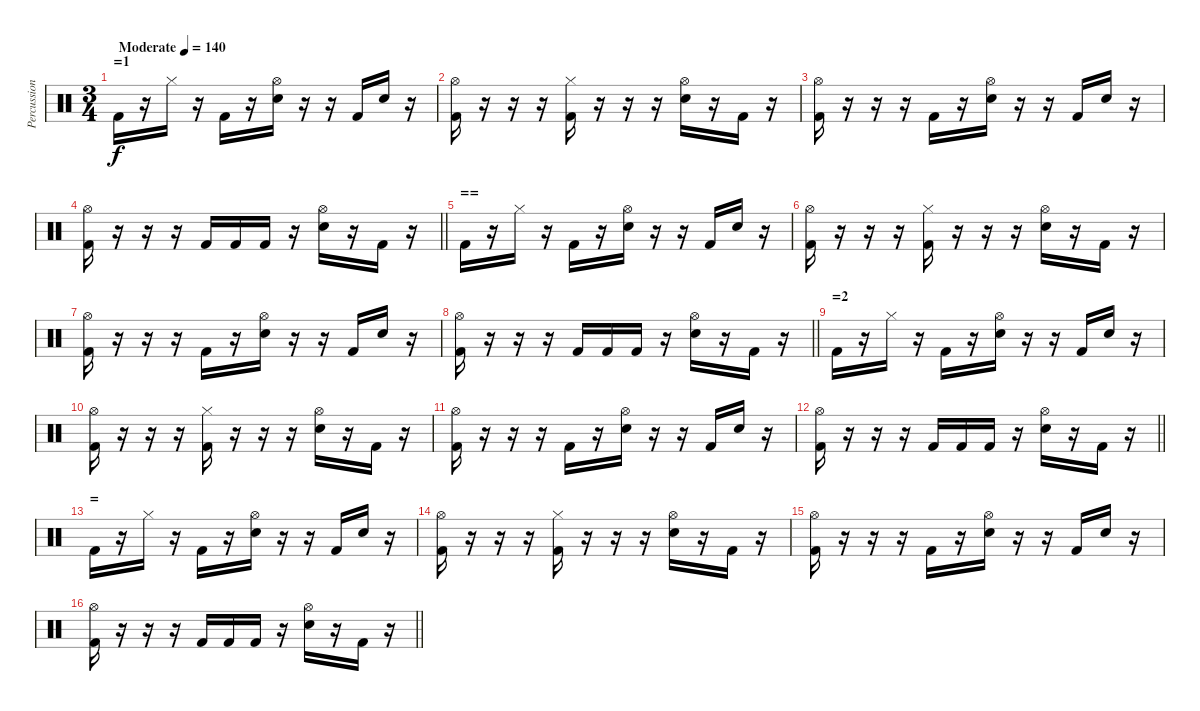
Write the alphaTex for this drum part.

\track ("Percussion" "Percussion") {instrument percussion}
\staff {score}
\articulation defaults
\ts (3 4)
\section ("" "=1")
\tempo (140 "Moderate")
\clef neutral
\ks c "Kick (hit) 2".16{dy f}
r.16 "Hi-Hat (closed)".16 r.16 "Kick (hit) 2".16 r.16 ("Electric Snare (hit)" "Hi-Hat (open)").16 r.16 r.16 "Kick (hit) 2".16 "Electric Snare (hit)".16 r.16 |
("Kick (hit) 2" "Hi-Hat (open)").16 r.16 r.16 r.16 ("Kick (hit) 2" "Hi-Hat (closed)").16 r.16 r.16 r.16 ("Electric Snare (hit)" "Hi-Hat (open)").16 r.16 "Kick (hit) 2".16 r.16 |
("Kick (hit) 2" "Hi-Hat (open)").16 r.16 r.16 r.16 "Kick (hit) 2".16 r.16 ("Electric Snare (hit)" "Hi-Hat (open)").16 r.16 r.16 "Kick (hit) 2".16 "Electric Snare (hit)".16 r.16 |
\barLineRight lightlight
("Kick (hit) 2" "Hi-Hat (open)").16 r.16 r.16 r.16 "Kick (hit) 2".16 "Kick (hit) 2".16 "Kick (hit) 2".16 r.16 ("Electric Snare (hit)" "Hi-Hat (open)").16 r.16 "Kick (hit) 2".16 r.16 |
\section ("" "==")
"Kick (hit) 2".16 r.16 "Hi-Hat (closed)".16 r.16 "Kick (hit) 2".16 r.16 ("Electric Snare (hit)" "Hi-Hat (open)").16 r.16 r.16 "Kick (hit) 2".16 "Electric Snare (hit)".16 r.16 |
("Kick (hit) 2" "Hi-Hat (open)").16 r.16 r.16 r.16 ("Kick (hit) 2" "Hi-Hat (closed)").16 r.16 r.16 r.16 ("Electric Snare (hit)" "Hi-Hat (open)").16 r.16 "Kick (hit) 2".16 r.16 |
("Kick (hit) 2" "Hi-Hat (open)").16 r.16 r.16 r.16 "Kick (hit) 2".16 r.16 ("Electric Snare (hit)" "Hi-Hat (open)").16 r.16 r.16 "Kick (hit) 2".16 "Electric Snare (hit)".16 r.16 |
\barLineRight lightlight
("Kick (hit) 2" "Hi-Hat (open)").16 r.16 r.16 r.16 "Kick (hit) 2".16 "Kick (hit) 2".16 "Kick (hit) 2".16 r.16 ("Electric Snare (hit)" "Hi-Hat (open)").16 r.16 "Kick (hit) 2".16 r.16 |
\section ("" "=2")
"Kick (hit) 2".16 r.16 "Hi-Hat (closed)".16 r.16 "Kick (hit) 2".16 r.16 ("Electric Snare (hit)" "Hi-Hat (open)").16 r.16 r.16 "Kick (hit) 2".16 "Electric Snare (hit)".16 r.16 |
("Kick (hit) 2" "Hi-Hat (open)").16 r.16 r.16 r.16 ("Kick (hit) 2" "Hi-Hat (closed)").16 r.16 r.16 r.16 ("Electric Snare (hit)" "Hi-Hat (open)").16 r.16 "Kick (hit) 2".16 r.16 |
("Kick (hit) 2" "Hi-Hat (open)").16 r.16 r.16 r.16 "Kick (hit) 2".16 r.16 ("Electric Snare (hit)" "Hi-Hat (open)").16 r.16 r.16 "Kick (hit) 2".16 "Electric Snare (hit)".16 r.16 |
\barLineRight lightlight
("Kick (hit) 2" "Hi-Hat (open)").16 r.16 r.16 r.16 "Kick (hit) 2".16 "Kick (hit) 2".16 "Kick (hit) 2".16 r.16 ("Electric Snare (hit)" "Hi-Hat (open)").16 r.16 "Kick (hit) 2".16 r.16 |
\section ("" "=")
"Kick (hit) 2".16 r.16 "Hi-Hat (closed)".16 r.16 "Kick (hit) 2".16 r.16 ("Electric Snare (hit)" "Hi-Hat (open)").16 r.16 r.16 "Kick (hit) 2".16 "Electric Snare (hit)".16 r.16 |
("Kick (hit) 2" "Hi-Hat (open)").16 r.16 r.16 r.16 ("Kick (hit) 2" "Hi-Hat (closed)").16 r.16 r.16 r.16 ("Electric Snare (hit)" "Hi-Hat (open)").16 r.16 "Kick (hit) 2".16 r.16 |
("Kick (hit) 2" "Hi-Hat (open)").16 r.16 r.16 r.16 "Kick (hit) 2".16 r.16 ("Electric Snare (hit)" "Hi-Hat (open)").16 r.16 r.16 "Kick (hit) 2".16 "Electric Snare (hit)".16 r.16 |
\barLineRight lightlight
("Kick (hit) 2" "Hi-Hat (open)").16 r.16 r.16 r.16 "Kick (hit) 2".16 "Kick (hit) 2".16 "Kick (hit) 2".16 r.16 ("Electric Snare (hit)" "Hi-Hat (open)").16 r.16 "Kick (hit) 2".16 r.16
